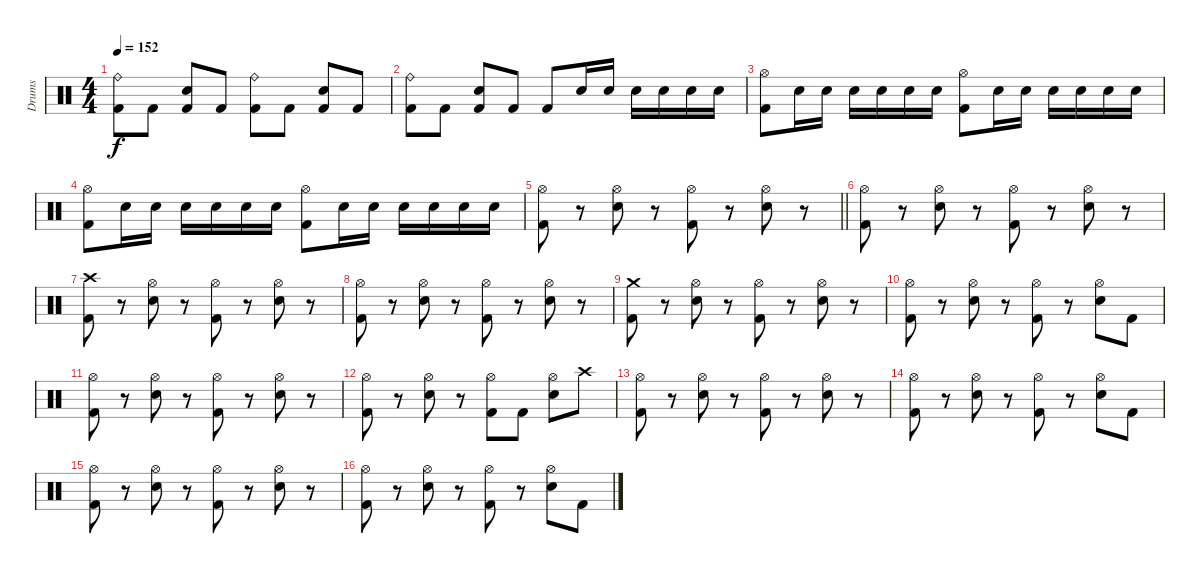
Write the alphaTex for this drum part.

\track ("Drums" "Drums") {instrument percussion}
\staff {score}
\articulation defaults
\ts (4 4)
\tempo 152
\clef neutral
\ks c
("Ride (bell)" "Kick (hit) 2").8{dy f} "Kick (hit) 2".8 ("Snare (hit) 2" "Kick (hit) 2").8 "Kick (hit) 2".8 ("Ride (bell)" "Kick (hit) 2").8 "Kick (hit) 2".8 ("Snare (hit) 2" "Kick (hit) 2").8 "Kick (hit) 2".8 |
("Ride (bell)" "Kick (hit) 2").8 "Kick (hit) 2".8 ("Snare (hit) 2" "Kick (hit) 2").8 "Kick (hit) 2".8 "Kick (hit) 2".8 "Snare (hit) 2".16 "Snare (hit) 2".16 "Snare (hit) 2".16 "Snare (hit) 2".16 "Snare (hit) 2".16 "Snare (hit) 2".16 |
("Hi-Hat (open)" "Kick (hit) 2").8 "Snare (hit) 2".16 "Snare (hit) 2".16 "Snare (hit) 2".16 "Snare (hit) 2".16 "Snare (hit) 2".16 "Snare (hit) 2".16 ("Hi-Hat (open)" "Kick (hit) 2").8 "Snare (hit) 2".16 "Snare (hit) 2".16 "Snare (hit) 2".16 "Snare (hit) 2".16 "Snare (hit) 2".16 "Snare (hit) 2".16 |
("Hi-Hat (open)" "Kick (hit) 2").8 "Snare (hit) 2".16 "Snare (hit) 2".16 "Snare (hit) 2".16 "Snare (hit) 2".16 "Snare (hit) 2".16 "Snare (hit) 2".16 ("Hi-Hat (open)" "Kick (hit) 2").8 "Snare (hit) 2".16 "Snare (hit) 2".16 "Snare (hit) 2".16 "Snare (hit) 2".16 "Snare (hit) 2".16 "Snare (hit) 2".16 |
\barLineRight lightlight
("Hi-Hat (open)" "Kick (hit) 2").8 r.8 ("Hi-Hat (open)" "Snare (hit) 2").8 r.8 ("Hi-Hat (open)" "Kick (hit) 2").8 r.8 ("Hi-Hat (open)" "Snare (hit) 2").8 r.8 |
("Hi-Hat (open)" "Kick (hit) 2").8 r.8 ("Hi-Hat (open)" "Snare (hit) 2").8 r.8 ("Hi-Hat (open)" "Kick (hit) 2").8 r.8 ("Hi-Hat (open)" "Snare (hit) 2").8 r.8 |
("Crash high (hit)" "Kick (hit) 2").8 r.8 ("Hi-Hat (open)" "Snare (hit) 2").8 r.8 ("Hi-Hat (open)" "Kick (hit) 2").8 r.8 ("Hi-Hat (open)" "Snare (hit) 2").8 r.8 |
("Hi-Hat (open)" "Kick (hit) 2").8 r.8 ("Hi-Hat (open)" "Snare (hit) 2").8 r.8 ("Hi-Hat (open)" "Kick (hit) 2").8 r.8 ("Hi-Hat (open)" "Snare (hit) 2").8 r.8 |
("Crash medium (hit)" "Kick (hit) 2").8 r.8 ("Hi-Hat (open)" "Snare (hit) 2").8 r.8 ("Hi-Hat (open)" "Kick (hit) 2").8 r.8 ("Hi-Hat (open)" "Snare (hit) 2").8 r.8 |
("Hi-Hat (open)" "Kick (hit) 2").8 r.8 ("Hi-Hat (open)" "Snare (hit) 2").8 r.8 ("Hi-Hat (open)" "Kick (hit) 2").8 r.8 ("Hi-Hat (open)" "Snare (hit) 2").8 "Kick (hit) 2".8 |
("Hi-Hat (open)" "Kick (hit) 2").8 r.8 ("Hi-Hat (open)" "Snare (hit) 2").8 r.8 ("Hi-Hat (open)" "Kick (hit) 2").8 r.8 ("Hi-Hat (open)" "Snare (hit) 2").8 r.8 |
("Hi-Hat (open)" "Kick (hit) 2").8 r.8 ("Hi-Hat (open)" "Snare (hit) 2").8 r.8 ("Hi-Hat (open)" "Kick (hit) 2").8 "Kick (hit) 2".8 ("Hi-Hat (open)" "Snare (hit) 2").8 "Crash high (hit)".8 |
("Hi-Hat (open)" "Kick (hit) 2").8 r.8 ("Hi-Hat (open)" "Snare (hit) 2").8 r.8 ("Hi-Hat (open)" "Kick (hit) 2").8 r.8 ("Hi-Hat (open)" "Snare (hit) 2").8 r.8 |
("Hi-Hat (open)" "Kick (hit) 2").8 r.8 ("Hi-Hat (open)" "Snare (hit) 2").8 r.8 ("Hi-Hat (open)" "Kick (hit) 2").8 r.8 ("Hi-Hat (open)" "Snare (hit) 2").8 "Kick (hit) 2".8 |
("Hi-Hat (open)" "Kick (hit) 2").8 r.8 ("Hi-Hat (open)" "Snare (hit) 2").8 r.8 ("Hi-Hat (open)" "Kick (hit) 2").8 r.8 ("Hi-Hat (open)" "Snare (hit) 2").8 r.8 |
("Hi-Hat (open)" "Kick (hit) 2").8 r.8 ("Hi-Hat (open)" "Snare (hit) 2").8 r.8 ("Hi-Hat (open)" "Kick (hit) 2").8 r.8 ("Hi-Hat (open)" "Snare (hit) 2").8 "Kick (hit) 2".8
